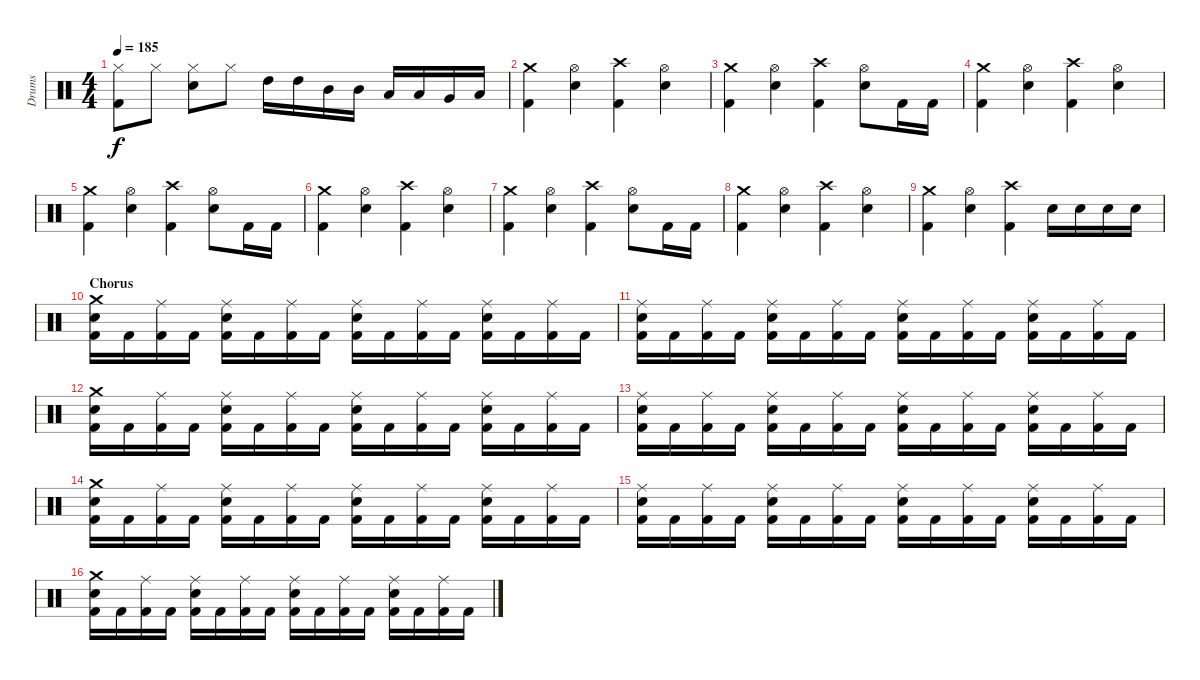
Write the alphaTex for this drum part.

\track ("Drums" "Drums") {instrument percussion}
\staff {score}
\articulation defaults
\ts (4 4)
\tempo 185
\clef neutral
\ks c
("Hi-Hat (closed)" "Kick (hit) 2").8{dy f} "Hi-Hat (closed)".8 ("Hi-Hat (closed)" "Electric Snare (hit)").8 "Hi-Hat (closed)".8 "High Tom (hit)".16 "High Tom (hit)".16 "Mid Tom (hit)".16 "Mid Tom (hit)".16 "Low Tom (hit)".16 "Low Tom (hit)".16 "Very Low Tom (hit)".16 "Low Floor Tom (hit)".16 |
("Crash medium (hit)" "Kick (hit) 2").4 ("Hi-Hat (open)" "Electric Snare (hit)").4 ("Crash high (hit)" "Kick (hit) 2").4 ("Hi-Hat (open)" "Electric Snare (hit)").4 |
("Crash medium (hit)" "Kick (hit) 2").4 ("Hi-Hat (open)" "Electric Snare (hit)").4 ("Crash high (hit)" "Kick (hit) 2").4 ("Hi-Hat (open)" "Electric Snare (hit)").8 "Kick (hit) 2".16 "Kick (hit) 2".16 |
("Crash medium (hit)" "Kick (hit) 2").4 ("Hi-Hat (open)" "Electric Snare (hit)").4 ("Crash high (hit)" "Kick (hit) 2").4 ("Hi-Hat (open)" "Electric Snare (hit)").4 |
("Crash medium (hit)" "Kick (hit) 2").4 ("Hi-Hat (open)" "Electric Snare (hit)").4 ("Crash high (hit)" "Kick (hit) 2").4 ("Hi-Hat (open)" "Electric Snare (hit)").8 "Kick (hit) 2".16 "Kick (hit) 2".16 |
("Crash medium (hit)" "Kick (hit) 2").4 ("Hi-Hat (open)" "Electric Snare (hit)").4 ("Crash high (hit)" "Kick (hit) 2").4 ("Hi-Hat (open)" "Electric Snare (hit)").4 |
("Crash medium (hit)" "Kick (hit) 2").4 ("Hi-Hat (open)" "Electric Snare (hit)").4 ("Crash high (hit)" "Kick (hit) 2").4 ("Hi-Hat (open)" "Electric Snare (hit)").8 "Kick (hit) 2".16 "Kick (hit) 2".16 |
("Crash medium (hit)" "Kick (hit) 2").4 ("Hi-Hat (open)" "Electric Snare (hit)").4 ("Crash high (hit)" "Kick (hit) 2").4 ("Hi-Hat (open)" "Electric Snare (hit)").4 |
("Crash medium (hit)" "Kick (hit) 2").4 ("Hi-Hat (open)" "Electric Snare (hit)").4 ("Crash high (hit)" "Kick (hit) 2").4 "Electric Snare (hit)".16 "Electric Snare (hit)".16 "Electric Snare (hit)".16 "Electric Snare (hit)".16 |
\section ("" "Chorus")
("Crash medium (hit)" "Electric Snare (hit)" "Kick (hit) 2").16 "Kick (hit) 2".16 ("Ride (middle)" "Kick (hit) 2").16 "Kick (hit) 2".16 ("Ride (middle)" "Electric Snare (hit)" "Kick (hit) 2").16 "Kick (hit) 2".16 ("Ride (middle)" "Kick (hit) 2").16 "Kick (hit) 2".16 ("Ride (middle)" "Electric Snare (hit)" "Kick (hit) 2").16 "Kick (hit) 2".16 ("Ride (middle)" "Kick (hit) 2").16 "Kick (hit) 2".16 ("Ride (middle)" "Electric Snare (hit)" "Kick (hit) 2").16 "Kick (hit) 2".16 ("Ride (middle)" "Kick (hit) 2").16 "Kick (hit) 2".16 |
("Ride (middle)" "Electric Snare (hit)" "Kick (hit) 2").16 "Kick (hit) 2".16 ("Ride (middle)" "Kick (hit) 2").16 "Kick (hit) 2".16 ("Ride (middle)" "Electric Snare (hit)" "Kick (hit) 2").16 "Kick (hit) 2".16 ("Ride (middle)" "Kick (hit) 2").16 "Kick (hit) 2".16 ("Ride (middle)" "Electric Snare (hit)" "Kick (hit) 2").16 "Kick (hit) 2".16 ("Ride (middle)" "Kick (hit) 2").16 "Kick (hit) 2".16 ("Ride (middle)" "Electric Snare (hit)" "Kick (hit) 2").16 "Kick (hit) 2".16 ("Ride (middle)" "Kick (hit) 2").16 "Kick (hit) 2".16 |
("Crash medium (hit)" "Electric Snare (hit)" "Kick (hit) 2").16 "Kick (hit) 2".16 ("Ride (middle)" "Kick (hit) 2").16 "Kick (hit) 2".16 ("Ride (middle)" "Electric Snare (hit)" "Kick (hit) 2").16 "Kick (hit) 2".16 ("Ride (middle)" "Kick (hit) 2").16 "Kick (hit) 2".16 ("Ride (middle)" "Electric Snare (hit)" "Kick (hit) 2").16 "Kick (hit) 2".16 ("Ride (middle)" "Kick (hit) 2").16 "Kick (hit) 2".16 ("Ride (middle)" "Electric Snare (hit)" "Kick (hit) 2").16 "Kick (hit) 2".16 ("Ride (middle)" "Kick (hit) 2").16 "Kick (hit) 2".16 |
("Ride (middle)" "Electric Snare (hit)" "Kick (hit) 2").16 "Kick (hit) 2".16 ("Ride (middle)" "Kick (hit) 2").16 "Kick (hit) 2".16 ("Ride (middle)" "Electric Snare (hit)" "Kick (hit) 2").16 "Kick (hit) 2".16 ("Ride (middle)" "Kick (hit) 2").16 "Kick (hit) 2".16 ("Ride (middle)" "Electric Snare (hit)" "Kick (hit) 2").16 "Kick (hit) 2".16 ("Ride (middle)" "Kick (hit) 2").16 "Kick (hit) 2".16 ("Ride (middle)" "Electric Snare (hit)" "Kick (hit) 2").16 "Kick (hit) 2".16 ("Ride (middle)" "Kick (hit) 2").16 "Kick (hit) 2".16 |
("Crash medium (hit)" "Electric Snare (hit)" "Kick (hit) 2").16 "Kick (hit) 2".16 ("Ride (middle)" "Kick (hit) 2").16 "Kick (hit) 2".16 ("Ride (middle)" "Electric Snare (hit)" "Kick (hit) 2").16 "Kick (hit) 2".16 ("Ride (middle)" "Kick (hit) 2").16 "Kick (hit) 2".16 ("Ride (middle)" "Electric Snare (hit)" "Kick (hit) 2").16 "Kick (hit) 2".16 ("Ride (middle)" "Kick (hit) 2").16 "Kick (hit) 2".16 ("Ride (middle)" "Electric Snare (hit)" "Kick (hit) 2").16 "Kick (hit) 2".16 ("Ride (middle)" "Kick (hit) 2").16 "Kick (hit) 2".16 |
("Ride (middle)" "Electric Snare (hit)" "Kick (hit) 2").16 "Kick (hit) 2".16 ("Ride (middle)" "Kick (hit) 2").16 "Kick (hit) 2".16 ("Ride (middle)" "Electric Snare (hit)" "Kick (hit) 2").16 "Kick (hit) 2".16 ("Ride (middle)" "Kick (hit) 2").16 "Kick (hit) 2".16 ("Ride (middle)" "Electric Snare (hit)" "Kick (hit) 2").16 "Kick (hit) 2".16 ("Ride (middle)" "Kick (hit) 2").16 "Kick (hit) 2".16 ("Ride (middle)" "Electric Snare (hit)" "Kick (hit) 2").16 "Kick (hit) 2".16 ("Ride (middle)" "Kick (hit) 2").16 "Kick (hit) 2".16 |
("Crash medium (hit)" "Electric Snare (hit)" "Kick (hit) 2").16 "Kick (hit) 2".16 ("Ride (middle)" "Kick (hit) 2").16 "Kick (hit) 2".16 ("Ride (middle)" "Electric Snare (hit)" "Kick (hit) 2").16 "Kick (hit) 2".16 ("Ride (middle)" "Kick (hit) 2").16 "Kick (hit) 2".16 ("Ride (middle)" "Electric Snare (hit)" "Kick (hit) 2").16 "Kick (hit) 2".16 ("Ride (middle)" "Kick (hit) 2").16 "Kick (hit) 2".16 ("Ride (middle)" "Electric Snare (hit)" "Kick (hit) 2").16 "Kick (hit) 2".16 ("Ride (middle)" "Kick (hit) 2").16 "Kick (hit) 2".16
